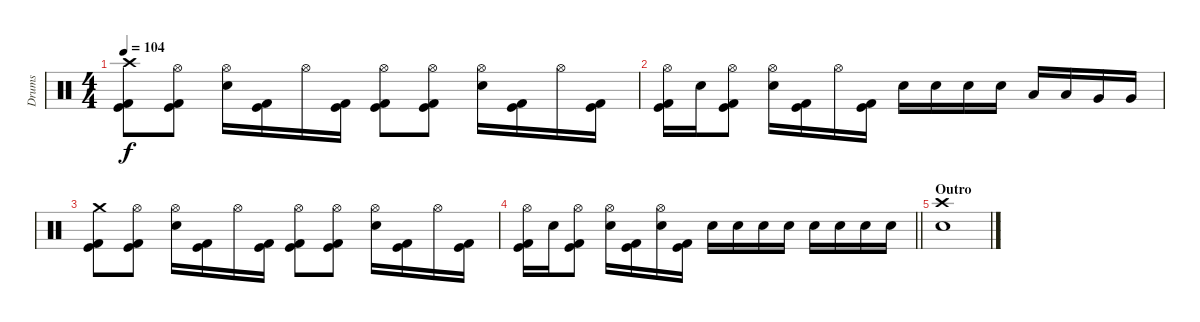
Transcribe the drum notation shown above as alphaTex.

\track ("Drums" "Drums") {instrument percussion}
\staff {score}
\articulation defaults
\ts (4 4)
\tempo 104
\clef neutral
\ks c
("Crash high (hit)" "Kick (hit)" "Kick (hit) 2").8{dy f} ("Hi-Hat (open)" "Kick (hit)" "Kick (hit) 2").8 ("Hi-Hat (open)" "Electric Snare (hit)").16 ("Kick (hit)" "Kick (hit) 2").16 "Hi-Hat (open)".16 ("Kick (hit)" "Kick (hit) 2").16 ("Hi-Hat (open)" "Kick (hit)" "Kick (hit) 2").8 ("Hi-Hat (open)" "Kick (hit)" "Kick (hit) 2").8 ("Hi-Hat (open)" "Electric Snare (hit)").16 ("Kick (hit)" "Kick (hit) 2").16 "Hi-Hat (open)".16 ("Kick (hit)" "Kick (hit) 2").16 |
("Hi-Hat (open)" "Kick (hit)" "Kick (hit) 2").16 "Electric Snare (hit)".16 ("Hi-Hat (open)" "Kick (hit)" "Kick (hit) 2").8 ("Hi-Hat (open)" "Electric Snare (hit)").16 ("Kick (hit)" "Kick (hit) 2").16 "Hi-Hat (open)".16 ("Kick (hit)" "Kick (hit) 2").16 "Electric Snare (hit)".16 "Electric Snare (hit)".16 "Electric Snare (hit)".16 "Electric Snare (hit)".16 "Low Tom (hit)".16 "Low Tom (hit)".16 "Very Low Tom (hit)".16 "Very Low Tom (hit)".16 |
("Crash medium (hit)" "Kick (hit)" "Kick (hit) 2").8 ("Hi-Hat (open)" "Kick (hit)" "Kick (hit) 2").8 ("Hi-Hat (open)" "Electric Snare (hit)").16 ("Kick (hit)" "Kick (hit) 2").16 "Hi-Hat (open)".16 ("Kick (hit)" "Kick (hit) 2").16 ("Hi-Hat (open)" "Kick (hit)" "Kick (hit) 2").8 ("Hi-Hat (open)" "Kick (hit)" "Kick (hit) 2").8 ("Hi-Hat (open)" "Electric Snare (hit)").16 ("Kick (hit)" "Kick (hit) 2").16 "Hi-Hat (open)".16 ("Kick (hit)" "Kick (hit) 2").16 |
\barLineRight lightlight
("Hi-Hat (open)" "Kick (hit)" "Kick (hit) 2").16 "Electric Snare (hit)".16 ("Hi-Hat (open)" "Kick (hit)" "Kick (hit) 2").8 ("Hi-Hat (open)" "Electric Snare (hit)").16 ("Kick (hit)" "Kick (hit) 2").16 ("Hi-Hat (open)" "Electric Snare (hit)").16 ("Kick (hit)" "Kick (hit) 2").16 "Electric Snare (hit)".16 "Electric Snare (hit)".16 "Electric Snare (hit)".16 "Electric Snare (hit)".16 "Electric Snare (hit)".16 "Electric Snare (hit)".16 "Electric Snare (hit)".16 "Electric Snare (hit)".16 |
\section ("" "Outro")
("Crash high (hit)" "Electric Snare (hit)").1{volume 0}
